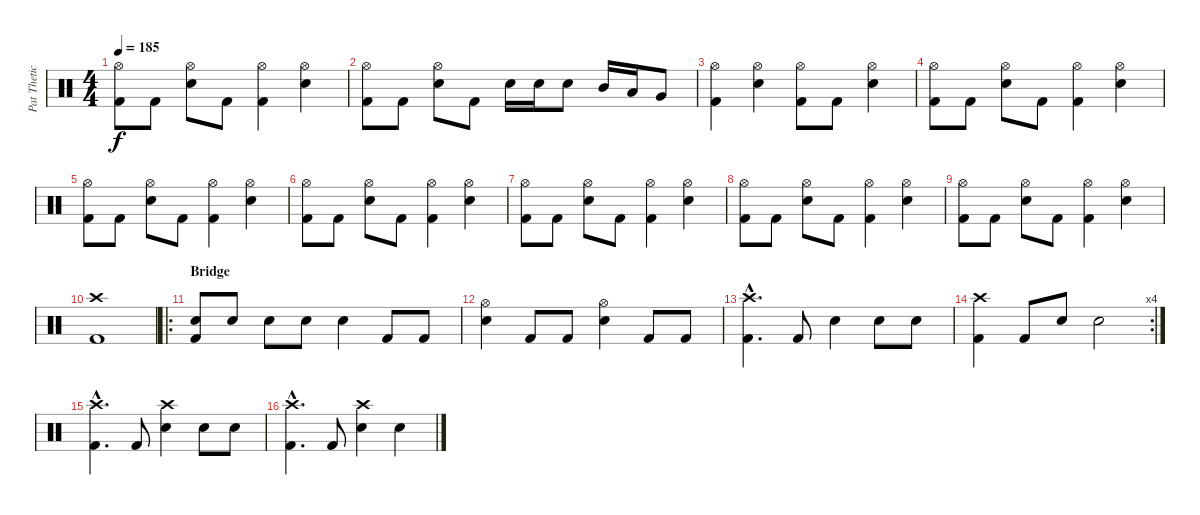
\track ("Pat Thetic" "Pat Thetic") {instrument percussion}
\staff {score}
\articulation defaults
\ts (4 4)
\tempo 185
\clef neutral
\ks c
("Hi-Hat (open)" "Kick (hit) 2").8{dy f} "Kick (hit) 2".8 ("Hi-Hat (open)" "Electric Snare (hit)").8 "Kick (hit) 2".8 ("Hi-Hat (open)" "Kick (hit) 2").4 ("Hi-Hat (open)" "Electric Snare (hit)").4 |
("Hi-Hat (open)" "Kick (hit) 2").8 "Kick (hit) 2".8 ("Hi-Hat (open)" "Electric Snare (hit)").8 "Kick (hit) 2".8 "Electric Snare (hit)".16 "Electric Snare (hit)".16 "Electric Snare (hit)".8 "Mid Tom (hit)".16 "Low Tom (hit)".16 "Very Low Tom (hit)".8 |
("Hi-Hat (open)" "Kick (hit) 2").4 ("Hi-Hat (open)" "Electric Snare (hit)").4 ("Hi-Hat (open)" "Kick (hit) 2").8 "Kick (hit) 2".8 ("Hi-Hat (open)" "Electric Snare (hit)").4 |
("Hi-Hat (open)" "Kick (hit) 2").8 "Kick (hit) 2".8 ("Hi-Hat (open)" "Electric Snare (hit)").8 "Kick (hit) 2".8 ("Hi-Hat (open)" "Kick (hit) 2").4 ("Hi-Hat (open)" "Electric Snare (hit)").4 |
("Hi-Hat (open)" "Kick (hit) 2").8 "Kick (hit) 2".8 ("Hi-Hat (open)" "Electric Snare (hit)").8 "Kick (hit) 2".8 ("Hi-Hat (open)" "Kick (hit) 2").4 ("Hi-Hat (open)" "Electric Snare (hit)").4 |
("Hi-Hat (open)" "Kick (hit) 2").8 "Kick (hit) 2".8 ("Hi-Hat (open)" "Electric Snare (hit)").8 "Kick (hit) 2".8 ("Hi-Hat (open)" "Kick (hit) 2").4 ("Hi-Hat (open)" "Electric Snare (hit)").4 |
("Hi-Hat (open)" "Kick (hit) 2").8 "Kick (hit) 2".8 ("Hi-Hat (open)" "Electric Snare (hit)").8 "Kick (hit) 2".8 ("Hi-Hat (open)" "Kick (hit) 2").4 ("Hi-Hat (open)" "Electric Snare (hit)").4 |
("Hi-Hat (open)" "Kick (hit) 2").8 "Kick (hit) 2".8 ("Hi-Hat (open)" "Electric Snare (hit)").8 "Kick (hit) 2".8 ("Hi-Hat (open)" "Kick (hit) 2").4 ("Hi-Hat (open)" "Electric Snare (hit)").4 |
("Hi-Hat (open)" "Kick (hit) 2").8 "Kick (hit) 2".8 ("Hi-Hat (open)" "Electric Snare (hit)").8 "Kick (hit) 2".8 ("Hi-Hat (open)" "Kick (hit) 2").4 ("Hi-Hat (open)" "Electric Snare (hit)").4 |
("Crash high (hit)" "Kick (hit) 2").1 |
\ro
\section ("" "Bridge")
("Electric Snare (hit)" "Kick (hit) 2").8 "Electric Snare (hit)".8 "Electric Snare (hit)".8 "Electric Snare (hit)".8 "Electric Snare (hit)".4 "Kick (hit) 2".8 "Kick (hit) 2".8 |
("Hi-Hat (open)" "Electric Snare (hit)").4 "Kick (hit) 2".8 "Kick (hit) 2".8 ("Hi-Hat (open)" "Electric Snare (hit)").4 "Kick (hit) 2".8 "Kick (hit) 2".8 |
("Crash high (hit)"{hac} "Kick (hit) 2"{hac}).4{d} "Kick (hit) 2".8 "Electric Snare (hit)".4 "Electric Snare (hit)".8 "Electric Snare (hit)".8 |
\rc 4
("Crash high (hit)" "Kick (hit) 2").4 "Kick (hit) 2".8 "Electric Snare (hit)".8 "Electric Snare (hit)".2 |
("Crash high (hit)"{hac} "Kick (hit) 2"{hac}).4{d} "Kick (hit) 2".8 ("Crash high (hit)" "Electric Snare (hit)").4 "Electric Snare (hit)".8 "Electric Snare (hit)".8 |
("Crash high (hit)"{hac} "Kick (hit) 2"{hac}).4{d} "Kick (hit) 2".8 ("Crash high (hit)" "Electric Snare (hit)").4 "Electric Snare (hit)".4
